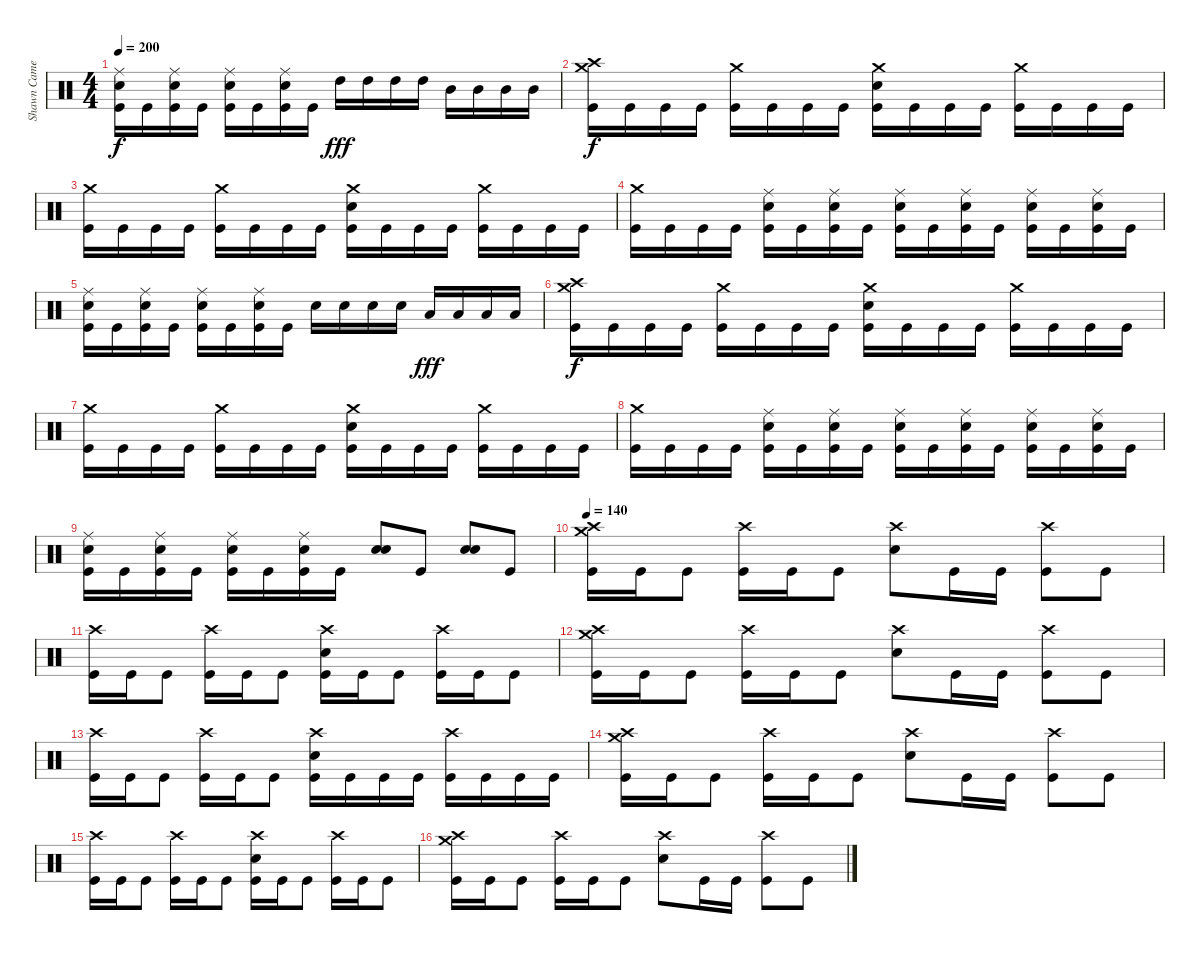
\track ("Shawn Cameron" "Shawn Came") {instrument percussion}
\staff {score}
\articulation defaults
\ts (4 4)
\tempo 200
\clef neutral
\ks c
("Ride (middle)" "Snare (hit) 2" "Kick (hit)").16{dy f} "Kick (hit)".16 ("Ride (middle)" "Snare (hit) 2" "Kick (hit)").16 "Kick (hit)".16 ("Ride (middle)" "Snare (hit) 2" "Kick (hit)").16 "Kick (hit)".16 ("Ride (middle)" "Snare (hit) 2" "Kick (hit)").16 "Kick (hit)".16 "High Tom (hit)".16{dy fff} "High Tom (hit)".16 "High Tom (hit)".16 "High Tom (hit)".16 "Mid Tom (hit)".16 "Mid Tom (hit)".16 "Mid Tom (hit)".16 "Mid Tom (hit)".16 |
("Crash high (hit)" "Crash medium (hit)" "Kick (hit)").16{dy f} "Kick (hit)".16 "Kick (hit)".16 "Kick (hit)".16 ("Crash medium (hit)" "Kick (hit)").16 "Kick (hit)".16 "Kick (hit)".16 "Kick (hit)".16 ("Crash medium (hit)" "Snare (hit) 2" "Kick (hit)").16 "Kick (hit)".16 "Kick (hit)".16 "Kick (hit)".16 ("Crash medium (hit)" "Kick (hit)").16 "Kick (hit)".16 "Kick (hit)".16 "Kick (hit)".16 |
("Crash medium (hit)" "Kick (hit)").16 "Kick (hit)".16 "Kick (hit)".16 "Kick (hit)".16 ("Crash medium (hit)" "Kick (hit)").16 "Kick (hit)".16 "Kick (hit)".16 "Kick (hit)".16 ("Crash medium (hit)" "Snare (hit) 2" "Kick (hit)").16 "Kick (hit)".16 "Kick (hit)".16 "Kick (hit)".16 ("Crash medium (hit)" "Kick (hit)").16 "Kick (hit)".16 "Kick (hit)".16 "Kick (hit)".16 |
("Crash medium (hit)" "Kick (hit)").16 "Kick (hit)".16 "Kick (hit)".16 "Kick (hit)".16 ("Ride (middle)" "Snare (hit) 2" "Kick (hit)").16 "Kick (hit)".16 ("Ride (middle)" "Snare (hit) 2" "Kick (hit)").16 "Kick (hit)".16 ("Ride (middle)" "Snare (hit) 2" "Kick (hit)").16 "Kick (hit)".16 ("Ride (middle)" "Snare (hit) 2" "Kick (hit)").16 "Kick (hit)".16 ("Ride (middle)" "Snare (hit) 2" "Kick (hit)").16 "Kick (hit)".16 ("Ride (middle)" "Snare (hit) 2" "Kick (hit)").16 "Kick (hit)".16 |
("Ride (middle)" "Snare (hit) 2" "Kick (hit)").16 "Kick (hit)".16 ("Ride (middle)" "Snare (hit) 2" "Kick (hit)").16 "Kick (hit)".16 ("Ride (middle)" "Snare (hit) 2" "Kick (hit)").16 "Kick (hit)".16 ("Ride (middle)" "Snare (hit) 2" "Kick (hit)").16 "Kick (hit)".16 "Snare (hit) 2".16 "Snare (hit) 2".16 "Snare (hit) 2".16 "Snare (hit) 2".16 "Low Tom (hit)".16{dy fff} "Low Tom (hit)".16 "Low Tom (hit)".16 "Low Tom (hit)".16 |
("Crash high (hit)" "Crash medium (hit)" "Kick (hit)").16{dy f} "Kick (hit)".16 "Kick (hit)".16 "Kick (hit)".16 ("Crash medium (hit)" "Kick (hit)").16 "Kick (hit)".16 "Kick (hit)".16 "Kick (hit)".16 ("Crash medium (hit)" "Snare (hit) 2" "Kick (hit)").16 "Kick (hit)".16 "Kick (hit)".16 "Kick (hit)".16 ("Crash medium (hit)" "Kick (hit)").16 "Kick (hit)".16 "Kick (hit)".16 "Kick (hit)".16 |
("Crash medium (hit)" "Kick (hit)").16 "Kick (hit)".16 "Kick (hit)".16 "Kick (hit)".16 ("Crash medium (hit)" "Kick (hit)").16 "Kick (hit)".16 "Kick (hit)".16 "Kick (hit)".16 ("Crash medium (hit)" "Snare (hit) 2" "Kick (hit)").16 "Kick (hit)".16 "Kick (hit)".16 "Kick (hit)".16 ("Crash medium (hit)" "Kick (hit)").16 "Kick (hit)".16 "Kick (hit)".16 "Kick (hit)".16 |
("Crash medium (hit)" "Kick (hit)").16 "Kick (hit)".16 "Kick (hit)".16 "Kick (hit)".16 ("Ride (middle)" "Snare (hit) 2" "Kick (hit)").16 "Kick (hit)".16 ("Ride (middle)" "Snare (hit) 2" "Kick (hit)").16 "Kick (hit)".16 ("Ride (middle)" "Snare (hit) 2" "Kick (hit)").16 "Kick (hit)".16 ("Ride (middle)" "Snare (hit) 2" "Kick (hit)").16 "Kick (hit)".16 ("Ride (middle)" "Snare (hit) 2" "Kick (hit)").16 "Kick (hit)".16 ("Ride (middle)" "Snare (hit) 2" "Kick (hit)").16 "Kick (hit)".16 |
("Ride (middle)" "Snare (hit) 2" "Kick (hit)").16 "Kick (hit)".16 ("Ride (middle)" "Snare (hit) 2" "Kick (hit)").16 "Kick (hit)".16 ("Ride (middle)" "Snare (hit) 2" "Kick (hit)").16 "Kick (hit)".16 ("Ride (middle)" "Snare (hit) 2" "Kick (hit)").16 "Kick (hit)".16 ("Snare (hit) 2" "Snare (hit) 2").8{bd 240} "Kick (hit)".8 ("Snare (hit) 2" "Snare (hit) 2").8{bd 240} "Kick (hit)".8 |
\tempo 140
("Crash high (hit)" "Crash medium (hit)" "Kick (hit)").16 "Kick (hit)".16 "Kick (hit)".8 ("Crash high (hit)" "Kick (hit)").16 "Kick (hit)".16 "Kick (hit)".8 ("Crash high (hit)" "Snare (hit) 2").8 "Kick (hit)".16 "Kick (hit)".16 ("Crash high (hit)" "Kick (hit)").8 "Kick (hit)".8 |
("Crash high (hit)" "Kick (hit)").16 "Kick (hit)".16 "Kick (hit)".8 ("Crash high (hit)" "Kick (hit)").16 "Kick (hit)".16 "Kick (hit)".8 ("Crash high (hit)" "Snare (hit) 2" "Kick (hit)").16 "Kick (hit)".16 "Kick (hit)".8 ("Crash high (hit)" "Kick (hit)").16 "Kick (hit)".16 "Kick (hit)".8 |
("Crash medium (hit)" "Crash high (hit)" "Kick (hit)").16 "Kick (hit)".16 "Kick (hit)".8 ("Crash high (hit)" "Kick (hit)").16 "Kick (hit)".16 "Kick (hit)".8 ("Crash high (hit)" "Snare (hit) 2").8 "Kick (hit)".16 "Kick (hit)".16 ("Crash high (hit)" "Kick (hit)").8 "Kick (hit)".8 |
("Crash high (hit)" "Kick (hit)").16 "Kick (hit)".16 "Kick (hit)".8 ("Crash high (hit)" "Kick (hit)").16 "Kick (hit)".16 "Kick (hit)".8 ("Crash high (hit)" "Snare (hit) 2" "Kick (hit)").16 "Kick (hit)".16 "Kick (hit)".16 "Kick (hit)".16 ("Crash high (hit)" "Kick (hit)").16 "Kick (hit)".16 "Kick (hit)".16 "Kick (hit)".16 |
("Crash medium (hit)" "Crash high (hit)" "Kick (hit)").16 "Kick (hit)".16 "Kick (hit)".8 ("Crash high (hit)" "Kick (hit)").16 "Kick (hit)".16 "Kick (hit)".8 ("Crash high (hit)" "Snare (hit) 2").8 "Kick (hit)".16 "Kick (hit)".16 ("Crash high (hit)" "Kick (hit)").8 "Kick (hit)".8 |
("Crash high (hit)" "Kick (hit)").16 "Kick (hit)".16 "Kick (hit)".8 ("Crash high (hit)" "Kick (hit)").16 "Kick (hit)".16 "Kick (hit)".8 ("Crash high (hit)" "Snare (hit) 2" "Kick (hit)").16 "Kick (hit)".16 "Kick (hit)".8 ("Crash high (hit)" "Kick (hit)").16 "Kick (hit)".16 "Kick (hit)".8 |
("Crash medium (hit)" "Crash high (hit)" "Kick (hit)").16 "Kick (hit)".16 "Kick (hit)".8 ("Crash high (hit)" "Kick (hit)").16 "Kick (hit)".16 "Kick (hit)".8 ("Crash high (hit)" "Snare (hit) 2").8 "Kick (hit)".16 "Kick (hit)".16 ("Crash high (hit)" "Kick (hit)").8 "Kick (hit)".8
